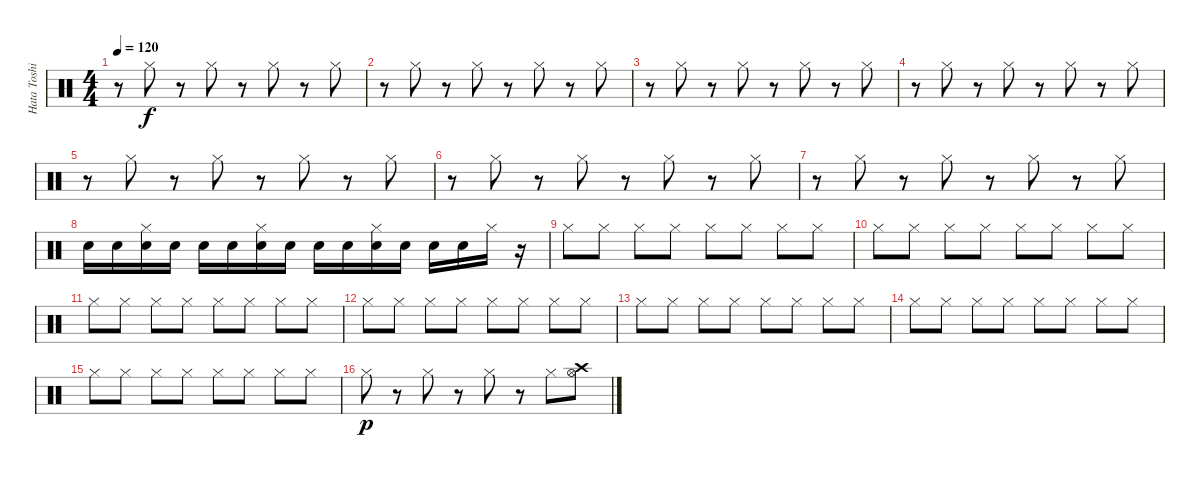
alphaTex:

\track ("Hata Toshiki" "Hata Toshi") {instrument percussion}
\staff {score}
\articulation defaults
\ts (4 4)
\tempo 120
\clef neutral
\ks c
r.8{dy f} "Hi-Hat (closed)".8 r.8 "Hi-Hat (closed)".8 r.8 "Hi-Hat (closed)".8 r.8 "Hi-Hat (closed)".8 |
r.8 "Hi-Hat (closed)".8 r.8 "Hi-Hat (closed)".8 r.8 "Hi-Hat (closed)".8 r.8 "Hi-Hat (closed)".8 |
r.8 "Hi-Hat (closed)".8 r.8 "Hi-Hat (closed)".8 r.8 "Hi-Hat (closed)".8 r.8 "Hi-Hat (closed)".8 |
r.8 "Hi-Hat (closed)".8 r.8 "Hi-Hat (closed)".8 r.8 "Hi-Hat (closed)".8 r.8 "Hi-Hat (closed)".8 |
r.8 "Hi-Hat (closed)".8 r.8 "Hi-Hat (closed)".8 r.8 "Hi-Hat (closed)".8 r.8 "Hi-Hat (closed)".8 |
r.8 "Hi-Hat (closed)".8 r.8 "Hi-Hat (closed)".8 r.8 "Hi-Hat (closed)".8 r.8 "Hi-Hat (closed)".8 |
r.8 "Hi-Hat (closed)".8 r.8 "Hi-Hat (closed)".8 r.8 "Hi-Hat (closed)".8 r.8 "Hi-Hat (closed)".8 |
"Electric Snare (hit)".16 "Electric Snare (hit)".16 ("Hi-Hat (closed)" "Electric Snare (hit)").16 "Electric Snare (hit)".16 "Electric Snare (hit)".16 "Electric Snare (hit)".16 ("Hi-Hat (closed)" "Electric Snare (hit)").16 "Electric Snare (hit)".16 "Electric Snare (hit)".16 "Electric Snare (hit)".16 ("Hi-Hat (closed)" "Electric Snare (hit)").16 "Electric Snare (hit)".16 "Electric Snare (hit)".16 "Electric Snare (hit)".16 "Hi-Hat (closed)".16 r.16 |
"Hi-Hat (closed)".8 "Hi-Hat (closed)".8 "Hi-Hat (closed)".8 "Hi-Hat (closed)".8 "Hi-Hat (closed)".8 "Hi-Hat (closed)".8 "Hi-Hat (closed)".8 "Hi-Hat (closed)".8 |
"Hi-Hat (closed)".8 "Hi-Hat (closed)".8 "Hi-Hat (closed)".8 "Hi-Hat (closed)".8 "Hi-Hat (closed)".8 "Hi-Hat (closed)".8 "Hi-Hat (closed)".8 "Hi-Hat (closed)".8 |
"Hi-Hat (closed)".8 "Hi-Hat (closed)".8 "Hi-Hat (closed)".8 "Hi-Hat (closed)".8 "Hi-Hat (closed)".8 "Hi-Hat (closed)".8 "Hi-Hat (closed)".8 "Hi-Hat (closed)".8 |
"Hi-Hat (closed)".8 "Hi-Hat (closed)".8 "Hi-Hat (closed)".8 "Hi-Hat (closed)".8 "Hi-Hat (closed)".8 "Hi-Hat (closed)".8 "Hi-Hat (closed)".8 "Hi-Hat (closed)".8 |
"Hi-Hat (closed)".8 "Hi-Hat (closed)".8 "Hi-Hat (closed)".8 "Hi-Hat (closed)".8 "Hi-Hat (closed)".8 "Hi-Hat (closed)".8 "Hi-Hat (closed)".8 "Hi-Hat (closed)".8 |
"Hi-Hat (closed)".8 "Hi-Hat (closed)".8 "Hi-Hat (closed)".8 "Hi-Hat (closed)".8 "Hi-Hat (closed)".8 "Hi-Hat (closed)".8 "Hi-Hat (closed)".8 "Hi-Hat (closed)".8 |
"Hi-Hat (closed)".8 "Hi-Hat (closed)".8 "Hi-Hat (closed)".8 "Hi-Hat (closed)".8 "Hi-Hat (closed)".8 "Hi-Hat (closed)".8 "Hi-Hat (closed)".8 "Hi-Hat (closed)".8 |
"Hi-Hat (closed)".8{dy p} r.8 "Hi-Hat (closed)".8 r.8 "Hi-Hat (closed)".8 r.8 "Hi-Hat (closed)".8 ("Hi-Hat (open)" "Crash high (hit)").8
